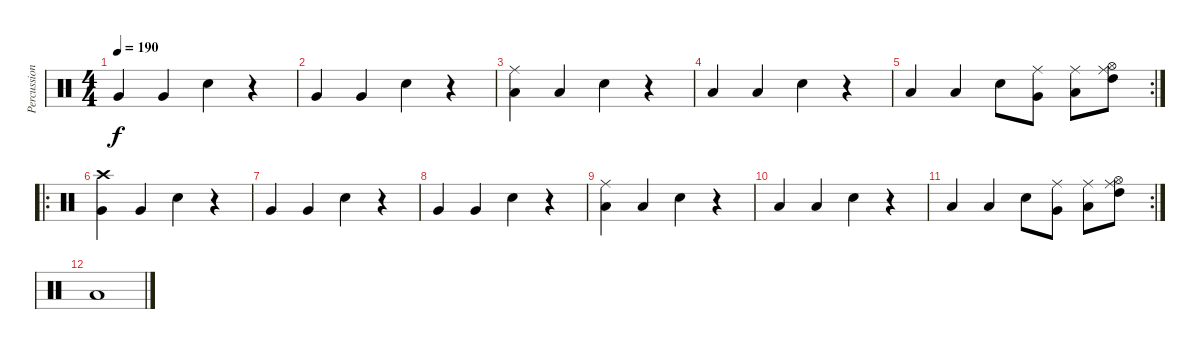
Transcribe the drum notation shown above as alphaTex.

\track ("Percussion" "Percussion") {instrument percussion}
\staff {score}
\articulation defaults
\ts (4 4)
\tempo 190
\clef neutral
\ks c "Very Low Tom (hit)".4{dy f} "Very Low Tom (hit)".4 "Snare (hit) 2".4
r.4 |
"Very Low Tom (hit)".4 "Very Low Tom (hit)".4 "Snare (hit) 2".4 r.4 |
("Low Floor Tom (hit)" "Ride (middle)").4 "Low Floor Tom (hit)".4 "Snare (hit) 2".4 r.4 |
"Low Floor Tom (hit)".4 "Low Floor Tom (hit)".4 "Snare (hit) 2".4 r.4 |
\rc 2 "Low Floor Tom (hit)".4 "Low Floor Tom (hit)".4 "Snare (hit) 2".8
("Very Low Tom (hit)" "Ride (middle)").8 ("Low Tom (hit)" "Ride (middle)").8 ("High Tom (hit)" "Hi-Hat (open)" "Ride (middle)").8 |
\ro
("Crash high (hit)" "Very Low Tom (hit)").4 "Very Low Tom (hit)".4 "Snare (hit) 2".4 r.4 |
"Very Low Tom (hit)".4 "Very Low Tom (hit)".4 "Snare (hit) 2".4 r.4 |
"Very Low Tom (hit)".4 "Very Low Tom (hit)".4 "Snare (hit) 2".4 r.4 |
("Low Floor Tom (hit)" "Ride (middle)").4 "Low Floor Tom (hit)".4 "Snare (hit) 2".4 r.4 |
"Low Floor Tom (hit)".4 "Low Floor Tom (hit)".4 "Snare (hit) 2".4 r.4 |
\rc 2 "Low Floor Tom (hit)".4 "Low Floor Tom (hit)".4 "Snare (hit) 2".8
("Very Low Tom (hit)" "Ride (middle)").8 ("Low Tom (hit)" "Ride (middle)").8 ("High Tom (hit)" "Hi-Hat (open)" "Ride (middle)").8 |
"Low Floor Tom (hit)".1
